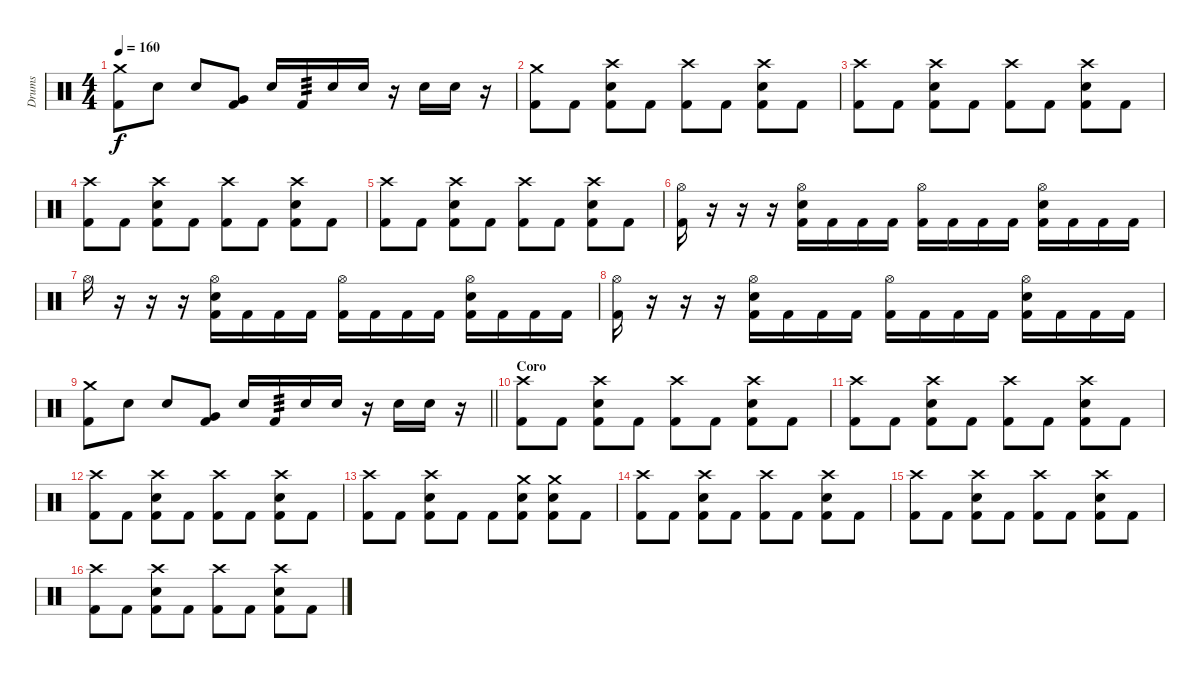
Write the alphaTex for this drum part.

\track ("Drums" "Drums") {instrument percussion}
\staff {score}
\articulation defaults
\ts (4 4)
\tempo 160
\clef neutral
\ks c
("Crash medium (hit)" "Kick (hit) 2").8{dy f} "Electric Snare (hit)".8 "Electric Snare (hit)".8 ("Very Low Tom (hit)" "Kick (hit) 2").8 "Electric Snare (hit)".16 "Kick (hit) 2".16{tp 3} "Electric Snare (hit)".16 "Electric Snare (hit)".16 r.16 "Electric Snare (hit)".16 "Electric Snare (hit)".16 r.16 |
("Crash medium (hit)" "Kick (hit) 2").8 "Kick (hit) 2".8 ("Crash high (hit)" "Electric Snare (hit)" "Kick (hit) 2").8 "Kick (hit) 2".8 ("Crash high (hit)" "Kick (hit) 2").8 "Kick (hit) 2".8 ("Crash high (hit)" "Electric Snare (hit)" "Kick (hit) 2").8 "Kick (hit) 2".8 |
("Crash high (hit)" "Kick (hit) 2").8 "Kick (hit) 2".8 ("Crash high (hit)" "Electric Snare (hit)" "Kick (hit) 2").8 "Kick (hit) 2".8 ("Crash high (hit)" "Kick (hit) 2").8 "Kick (hit) 2".8 ("Crash high (hit)" "Electric Snare (hit)" "Kick (hit) 2").8 "Kick (hit) 2".8 |
("Crash high (hit)" "Kick (hit) 2").8 "Kick (hit) 2".8 ("Crash high (hit)" "Electric Snare (hit)" "Kick (hit) 2").8 "Kick (hit) 2".8 ("Crash high (hit)" "Kick (hit) 2").8 "Kick (hit) 2".8 ("Crash high (hit)" "Electric Snare (hit)" "Kick (hit) 2").8 "Kick (hit) 2".8 |
("Crash high (hit)" "Kick (hit) 2").8 "Kick (hit) 2".8 ("Crash high (hit)" "Electric Snare (hit)" "Kick (hit) 2").8 "Kick (hit) 2".8 ("Crash high (hit)" "Kick (hit) 2").8 "Kick (hit) 2".8 ("Crash high (hit)" "Electric Snare (hit)" "Kick (hit) 2").8 "Kick (hit) 2".8 |
("Hi-Hat (open)" "Kick (hit) 2").16 r.16 r.16 r.16 ("Hi-Hat (open)" "Electric Snare (hit)" "Kick (hit) 2").16 "Kick (hit) 2".16 "Kick (hit) 2".16 "Kick (hit) 2".16 ("Hi-Hat (open)" "Kick (hit) 2").16 "Kick (hit) 2".16 "Kick (hit) 2".16 "Kick (hit) 2".16 ("Hi-Hat (open)" "Electric Snare (hit)" "Kick (hit) 2").16 "Kick (hit) 2".16 "Kick (hit) 2".16 "Kick (hit) 2".16 |
"Hi-Hat (open)".16 r.16 r.16 r.16 ("Hi-Hat (open)" "Electric Snare (hit)" "Kick (hit) 2").16 "Kick (hit) 2".16 "Kick (hit) 2".16 "Kick (hit) 2".16 ("Hi-Hat (open)" "Kick (hit) 2").16 "Kick (hit) 2".16 "Kick (hit) 2".16 "Kick (hit) 2".16 ("Hi-Hat (open)" "Electric Snare (hit)" "Kick (hit) 2").16 "Kick (hit) 2".16 "Kick (hit) 2".16 "Kick (hit) 2".16 |
("Hi-Hat (open)" "Kick (hit) 2").16 r.16 r.16 r.16 ("Hi-Hat (open)" "Electric Snare (hit)" "Kick (hit) 2").16 "Kick (hit) 2".16 "Kick (hit) 2".16 "Kick (hit) 2".16 ("Hi-Hat (open)" "Kick (hit) 2").16 "Kick (hit) 2".16 "Kick (hit) 2".16 "Kick (hit) 2".16 ("Hi-Hat (open)" "Electric Snare (hit)" "Kick (hit) 2").16 "Kick (hit) 2".16 "Kick (hit) 2".16 "Kick (hit) 2".16 |
\barLineRight lightlight
("Crash medium (hit)" "Kick (hit) 2").8 "Electric Snare (hit)".8 "Electric Snare (hit)".8 ("Very Low Tom (hit)" "Kick (hit) 2").8 "Electric Snare (hit)".16 "Kick (hit) 2".16{tp 3} "Electric Snare (hit)".16 "Electric Snare (hit)".16 r.16 "Electric Snare (hit)".16 "Electric Snare (hit)".16 r.16 |
\section ("" "Coro")
("Crash high (hit)" "Kick (hit) 2").8 "Kick (hit) 2".8 ("Crash high (hit)" "Electric Snare (hit)" "Kick (hit) 2").8 "Kick (hit) 2".8 ("Crash high (hit)" "Kick (hit) 2").8 "Kick (hit) 2".8 ("Crash high (hit)" "Electric Snare (hit)" "Kick (hit) 2").8 "Kick (hit) 2".8 |
("Crash high (hit)" "Kick (hit) 2").8 "Kick (hit) 2".8 ("Crash high (hit)" "Electric Snare (hit)" "Kick (hit) 2").8 "Kick (hit) 2".8 ("Crash high (hit)" "Kick (hit) 2").8 "Kick (hit) 2".8 ("Crash high (hit)" "Electric Snare (hit)" "Kick (hit) 2").8 "Kick (hit) 2".8 |
("Crash high (hit)" "Kick (hit) 2").8 "Kick (hit) 2".8 ("Crash high (hit)" "Electric Snare (hit)" "Kick (hit) 2").8 "Kick (hit) 2".8 ("Crash high (hit)" "Kick (hit) 2").8 "Kick (hit) 2".8 ("Crash high (hit)" "Electric Snare (hit)" "Kick (hit) 2").8 "Kick (hit) 2".8 |
("Crash high (hit)" "Kick (hit) 2").8 "Kick (hit) 2".8 ("Crash high (hit)" "Electric Snare (hit)" "Kick (hit) 2").8 "Kick (hit) 2".8 "Kick (hit) 2".8 ("Crash medium (hit)" "Electric Snare (hit)" "Kick (hit) 2").8 ("Crash medium (hit)" "Electric Snare (hit)" "Kick (hit) 2").8 "Kick (hit) 2".8 |
("Crash high (hit)" "Kick (hit) 2").8 "Kick (hit) 2".8 ("Crash high (hit)" "Electric Snare (hit)" "Kick (hit) 2").8 "Kick (hit) 2".8 ("Crash high (hit)" "Kick (hit) 2").8 "Kick (hit) 2".8 ("Crash high (hit)" "Electric Snare (hit)" "Kick (hit) 2").8 "Kick (hit) 2".8 |
("Crash high (hit)" "Kick (hit) 2").8 "Kick (hit) 2".8 ("Crash high (hit)" "Electric Snare (hit)" "Kick (hit) 2").8 "Kick (hit) 2".8 ("Crash high (hit)" "Kick (hit) 2").8 "Kick (hit) 2".8 ("Crash high (hit)" "Electric Snare (hit)" "Kick (hit) 2").8 "Kick (hit) 2".8 |
("Crash high (hit)" "Kick (hit) 2").8 "Kick (hit) 2".8 ("Crash high (hit)" "Electric Snare (hit)" "Kick (hit) 2").8 "Kick (hit) 2".8 ("Crash high (hit)" "Kick (hit) 2").8 "Kick (hit) 2".8 ("Crash high (hit)" "Electric Snare (hit)" "Kick (hit) 2").8 "Kick (hit) 2".8
